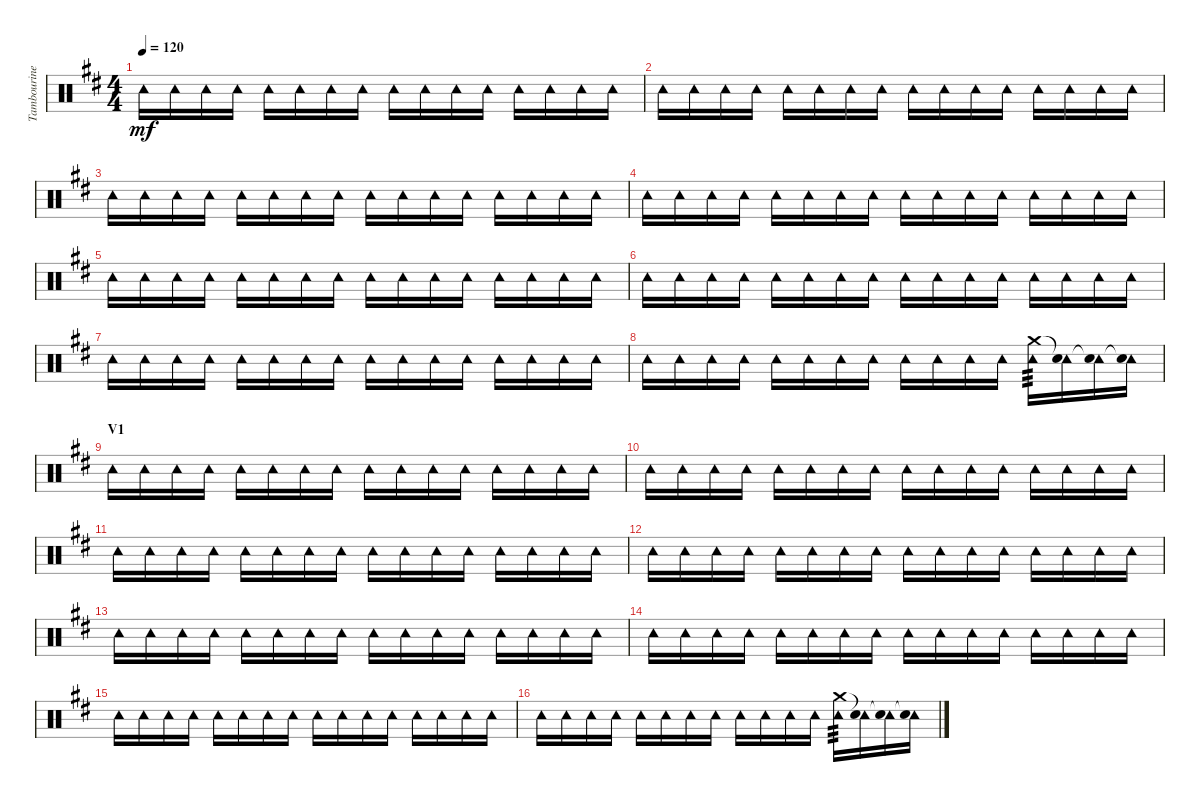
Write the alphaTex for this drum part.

\track ("Tambourine" "Tambourine") {instrument percussion}
\staff {score}
\articulation defaults
\ts (4 4)
\tempo 120
\clef neutral
\ks d "Tambourine (hit)".16{dy mf} "Tambourine (hit)".16 "Tambourine (hit)".16 "Tambourine (hit)".16 "Tambourine (hit)".16 "Tambourine (hit)".16 "Tambourine (hit)".16 "Tambourine (hit)".16 "Tambourine (hit)".16 "Tambourine (hit)".16 "Tambourine (hit)".16 "Tambourine (hit)".16 "Tambourine (hit)".16 "Tambourine (hit)".16 "Tambourine (hit)".16 "Tambourine (hit)".16
|
"Tambourine (hit)".16 "Tambourine (hit)".16 "Tambourine (hit)".16 "Tambourine (hit)".16 "Tambourine (hit)".16 "Tambourine (hit)".16 "Tambourine (hit)".16 "Tambourine (hit)".16 "Tambourine (hit)".16 "Tambourine (hit)".16 "Tambourine (hit)".16 "Tambourine (hit)".16 "Tambourine (hit)".16 "Tambourine (hit)".16 "Tambourine (hit)".16 "Tambourine (hit)".16 |
"Tambourine (hit)".16 "Tambourine (hit)".16 "Tambourine (hit)".16 "Tambourine (hit)".16 "Tambourine (hit)".16 "Tambourine (hit)".16 "Tambourine (hit)".16 "Tambourine (hit)".16 "Tambourine (hit)".16 "Tambourine (hit)".16 "Tambourine (hit)".16 "Tambourine (hit)".16 "Tambourine (hit)".16 "Tambourine (hit)".16 "Tambourine (hit)".16 "Tambourine (hit)".16 |
"Tambourine (hit)".16 "Tambourine (hit)".16 "Tambourine (hit)".16 "Tambourine (hit)".16 "Tambourine (hit)".16 "Tambourine (hit)".16 "Tambourine (hit)".16 "Tambourine (hit)".16 "Tambourine (hit)".16 "Tambourine (hit)".16 "Tambourine (hit)".16 "Tambourine (hit)".16 "Tambourine (hit)".16 "Tambourine (hit)".16 "Tambourine (hit)".16 "Tambourine (hit)".16 |
"Tambourine (hit)".16 "Tambourine (hit)".16 "Tambourine (hit)".16 "Tambourine (hit)".16 "Tambourine (hit)".16 "Tambourine (hit)".16 "Tambourine (hit)".16 "Tambourine (hit)".16 "Tambourine (hit)".16 "Tambourine (hit)".16 "Tambourine (hit)".16 "Tambourine (hit)".16 "Tambourine (hit)".16 "Tambourine (hit)".16 "Tambourine (hit)".16 "Tambourine (hit)".16 |
"Tambourine (hit)".16 "Tambourine (hit)".16 "Tambourine (hit)".16 "Tambourine (hit)".16 "Tambourine (hit)".16 "Tambourine (hit)".16 "Tambourine (hit)".16 "Tambourine (hit)".16 "Tambourine (hit)".16 "Tambourine (hit)".16 "Tambourine (hit)".16 "Tambourine (hit)".16 "Tambourine (hit)".16 "Tambourine (hit)".16 "Tambourine (hit)".16 "Tambourine (hit)".16 |
"Tambourine (hit)".16 "Tambourine (hit)".16 "Tambourine (hit)".16 "Tambourine (hit)".16 "Tambourine (hit)".16 "Tambourine (hit)".16 "Tambourine (hit)".16 "Tambourine (hit)".16 "Tambourine (hit)".16 "Tambourine (hit)".16 "Tambourine (hit)".16 "Tambourine (hit)".16 "Tambourine (hit)".16 "Tambourine (hit)".16 "Tambourine (hit)".16 "Tambourine (hit)".16 |
"Tambourine (hit)".16 "Tambourine (hit)".16 "Tambourine (hit)".16 "Tambourine (hit)".16 "Tambourine (hit)".16 "Tambourine (hit)".16 "Tambourine (hit)".16 "Tambourine (hit)".16 "Tambourine (hit)".16 "Tambourine (hit)".16 "Tambourine (hit)".16 "Tambourine (hit)".16 ("Tambourine (hit)" "Crash medium (hit)").16{tp 3} ("Tambourine (hit)" "Snare (hit)"{t}).16 ("Tambourine (hit)" "Snare (hit)"{t}).16 ("Tambourine (hit)" "Snare (hit)"{t}).16 |
\section ("" "V1")
"Tambourine (hit)".16 "Tambourine (hit)".16 "Tambourine (hit)".16 "Tambourine (hit)".16 "Tambourine (hit)".16 "Tambourine (hit)".16 "Tambourine (hit)".16 "Tambourine (hit)".16 "Tambourine (hit)".16 "Tambourine (hit)".16 "Tambourine (hit)".16 "Tambourine (hit)".16 "Tambourine (hit)".16 "Tambourine (hit)".16 "Tambourine (hit)".16 "Tambourine (hit)".16 |
"Tambourine (hit)".16 "Tambourine (hit)".16 "Tambourine (hit)".16 "Tambourine (hit)".16 "Tambourine (hit)".16 "Tambourine (hit)".16 "Tambourine (hit)".16 "Tambourine (hit)".16 "Tambourine (hit)".16 "Tambourine (hit)".16 "Tambourine (hit)".16 "Tambourine (hit)".16 "Tambourine (hit)".16 "Tambourine (hit)".16 "Tambourine (hit)".16 "Tambourine (hit)".16 |
"Tambourine (hit)".16 "Tambourine (hit)".16 "Tambourine (hit)".16 "Tambourine (hit)".16 "Tambourine (hit)".16 "Tambourine (hit)".16 "Tambourine (hit)".16 "Tambourine (hit)".16 "Tambourine (hit)".16 "Tambourine (hit)".16 "Tambourine (hit)".16 "Tambourine (hit)".16 "Tambourine (hit)".16 "Tambourine (hit)".16 "Tambourine (hit)".16 "Tambourine (hit)".16 |
"Tambourine (hit)".16 "Tambourine (hit)".16 "Tambourine (hit)".16 "Tambourine (hit)".16 "Tambourine (hit)".16 "Tambourine (hit)".16 "Tambourine (hit)".16 "Tambourine (hit)".16 "Tambourine (hit)".16 "Tambourine (hit)".16 "Tambourine (hit)".16 "Tambourine (hit)".16 "Tambourine (hit)".16 "Tambourine (hit)".16 "Tambourine (hit)".16 "Tambourine (hit)".16 |
"Tambourine (hit)".16 "Tambourine (hit)".16 "Tambourine (hit)".16 "Tambourine (hit)".16 "Tambourine (hit)".16 "Tambourine (hit)".16 "Tambourine (hit)".16 "Tambourine (hit)".16 "Tambourine (hit)".16 "Tambourine (hit)".16 "Tambourine (hit)".16 "Tambourine (hit)".16 "Tambourine (hit)".16 "Tambourine (hit)".16 "Tambourine (hit)".16 "Tambourine (hit)".16 |
"Tambourine (hit)".16 "Tambourine (hit)".16 "Tambourine (hit)".16 "Tambourine (hit)".16 "Tambourine (hit)".16 "Tambourine (hit)".16 "Tambourine (hit)".16 "Tambourine (hit)".16 "Tambourine (hit)".16 "Tambourine (hit)".16 "Tambourine (hit)".16 "Tambourine (hit)".16 "Tambourine (hit)".16 "Tambourine (hit)".16 "Tambourine (hit)".16 "Tambourine (hit)".16 |
"Tambourine (hit)".16 "Tambourine (hit)".16 "Tambourine (hit)".16 "Tambourine (hit)".16 "Tambourine (hit)".16 "Tambourine (hit)".16 "Tambourine (hit)".16 "Tambourine (hit)".16 "Tambourine (hit)".16 "Tambourine (hit)".16 "Tambourine (hit)".16 "Tambourine (hit)".16 "Tambourine (hit)".16 "Tambourine (hit)".16 "Tambourine (hit)".16 "Tambourine (hit)".16 |
"Tambourine (hit)".16 "Tambourine (hit)".16 "Tambourine (hit)".16 "Tambourine (hit)".16 "Tambourine (hit)".16 "Tambourine (hit)".16 "Tambourine (hit)".16 "Tambourine (hit)".16 "Tambourine (hit)".16 "Tambourine (hit)".16 "Tambourine (hit)".16 "Tambourine (hit)".16 ("Tambourine (hit)" "Crash medium (hit)").16{tp 3} ("Tambourine (hit)" "Snare (hit)"{t}).16 ("Tambourine (hit)" "Snare (hit)"{t}).16 ("Tambourine (hit)" "Snare (hit)"{t}).16
